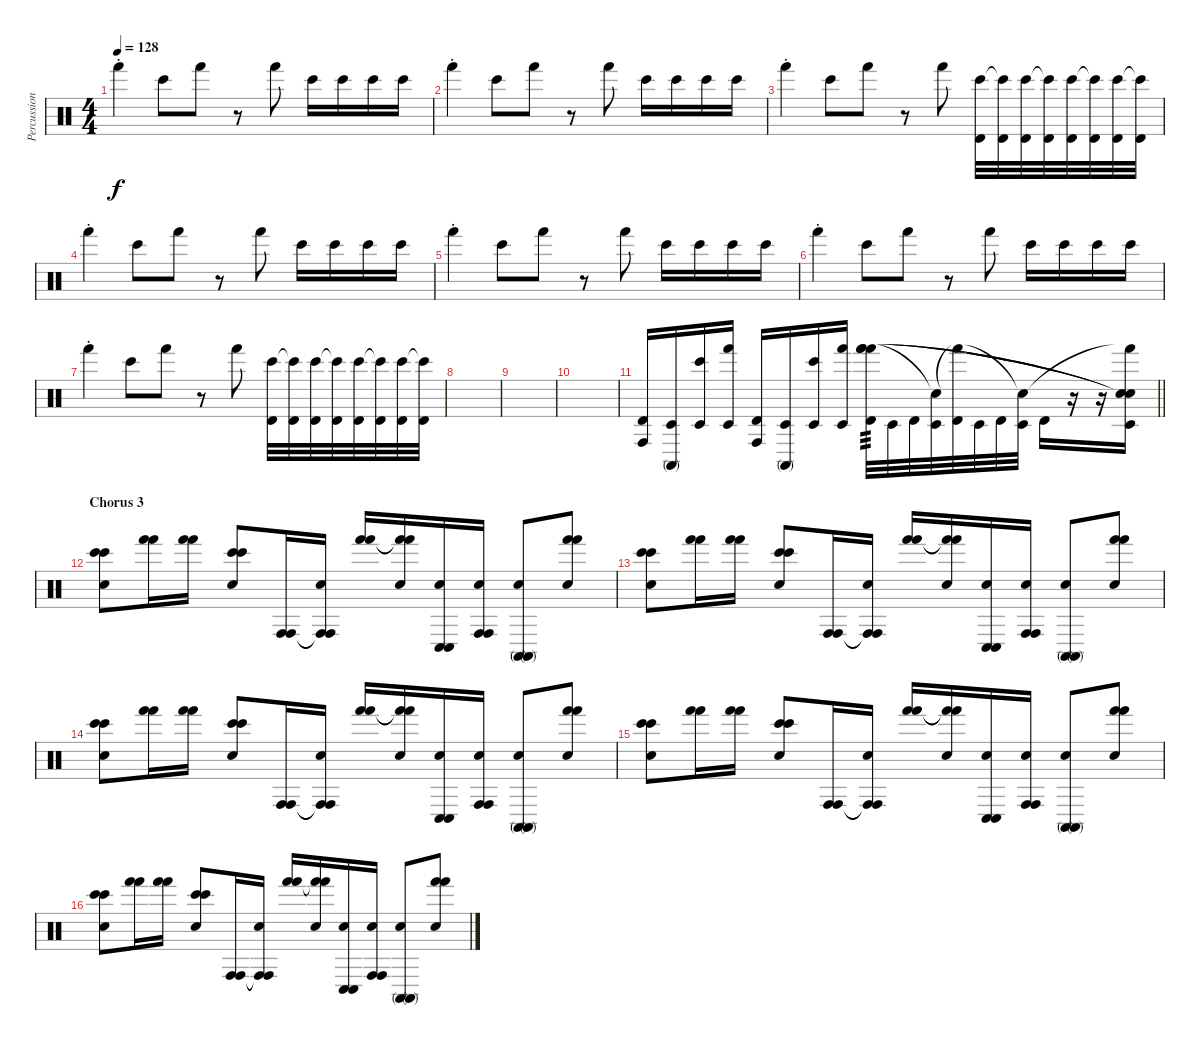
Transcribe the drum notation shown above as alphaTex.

\track ("Percussioni" "Percussion") {instrument percussion}
\staff {score}
\articulation defaults
\ts (4 4)
\tempo 128
\clef neutral
\ks c "Hand (hit)"{st}.4{dy f} "Bongo High (hit)".8 "Hand (hit)".8
r.8 "Hand (hit)".8 "Bongo High (hit)".16 "Bongo High (hit)".16 "Bongo High (hit)".16 "Bongo High (hit)".16 |
"Hand (hit)"{st}.4 "Bongo High (hit)".8 "Hand (hit)".8 r.8 "Hand (hit)".8 "Bongo High (hit)".16 "Bongo High (hit)".16 "Bongo High (hit)".16 "Bongo High (hit)".16 |
"Hand (hit)"{st}.4 "Bongo High (hit)".8 "Hand (hit)".8 r.8 "Hand (hit)".8 ("Timbale high (hit)" "Bongo High (hit)").32 ("Timbale high (hit)" "Bongo High (hit)"{t}).32 ("Timbale high (hit)" "Bongo High (hit)").32 ("Timbale high (hit)" "Bongo High (hit)"{t}).32 ("Timbale high (hit)" "Bongo High (hit)").32 ("Timbale high (hit)" "Bongo High (hit)"{t}).32 ("Timbale high (hit)" "Bongo High (hit)").32 ("Timbale high (hit)" "Bongo High (hit)"{t}).32 |
"Hand (hit)"{st}.4 "Bongo High (hit)".8 "Hand (hit)".8 r.8 "Hand (hit)".8 "Bongo High (hit)".16 "Bongo High (hit)".16 "Bongo High (hit)".16 "Bongo High (hit)".16 |
"Hand (hit)"{st}.4 "Bongo High (hit)".8 "Hand (hit)".8 r.8 "Hand (hit)".8 "Bongo High (hit)".16 "Bongo High (hit)".16 "Bongo High (hit)".16 "Bongo High (hit)".16 |
"Hand (hit)"{st}.4 "Bongo High (hit)".8 "Hand (hit)".8 r.8 "Hand (hit)".8 "Bongo High (hit)".16 "Bongo High (hit)".16 "Bongo High (hit)".16 "Bongo High (hit)".16 |
"Hand (hit)"{st}.4 "Bongo High (hit)".8 "Hand (hit)".8 r.8 "Hand (hit)".8 ("Timbale high (hit)" "Bongo High (hit)").32 ("Timbale high (hit)" "Bongo High (hit)"{t}).32 ("Timbale high (hit)" "Bongo High (hit)").32 ("Timbale high (hit)" "Bongo High (hit)"{t}).32 ("Timbale high (hit)" "Bongo High (hit)").32 ("Timbale high (hit)" "Bongo High (hit)"{t}).32 ("Timbale high (hit)" "Bongo High (hit)").32 ("Timbale high (hit)" "Bongo High (hit)"{t}).32 |
|
|
|
\barLineRight lightlight
("Timbale high (hit)" "Conga high (hit)").16 ("Timbale low (hit)" "Conga high (mute)").16 ("Timbale low (hit)" "Bongo High (hit)").16 ("Timbale low (hit)" "Hand (hit)").16 ("Timbale high (hit)" "Conga high (hit)").16 ("Timbale low (hit)" "Conga high (mute)").16 ("Timbale low (hit)" "Bongo High (hit)").16 ("Timbale low (hit)" "Hand (hit)").16 ("Timbale high (hit)" "Hand (hit)" "Hand (hit)" "Hand (hit)").32{tp 3} "Timbale low (hit)".32 "Timbale high (hit)".32 ("Timbale low (hit)" "Snare (hit)"{t}).32 ("Timbale high (hit)" "Hand (hit)"{t}).32 "Timbale low (hit)".32 "Timbale high (hit)".32 ("Timbale low (hit)" "Snare (hit)"{t}).32 "Timbale high (hit)".16 r.16 r.16 ("Timbale low (hit)" "Hand (hit)"{t} "Snare (hit)"{t} "Snare (hit)"{t}).16 |
\section ("" "Chorus 3")
("Bongo High (hit)" "Bongo High (hit)" "Hand Clap (hit)").8 ("Hand (hit)" "Hand (hit)").16 ("Hand (hit)" "Hand (hit)").16 ("Bongo High (hit)" "Bongo High (hit)" "Hand Clap (hit)").8 ("Conga high (hit)" "Conga high (hit)").16 ("Conga high (hit)"{t} "Conga high (hit)"{t} "Hand Clap (hit)").16 ("Hand (hit)" "Hand (hit)").16 ("Hand (hit)"{t} "Hand (hit)"{t} "Hand Clap (hit)").16 ("Conga low (hit)" "Conga low (hit)" "Hand Clap (hit)").16 ("Conga high (hit)" "Conga high (hit)" "Hand Clap (hit)").16 ("Conga high (mute)" "Conga high (mute)" "Hand Clap (hit)").8 ("Hand (hit)" "Hand (hit)" "Hand Clap (hit)").8 |
("Bongo High (hit)" "Bongo High (hit)" "Hand Clap (hit)").8 ("Hand (hit)" "Hand (hit)").16 ("Hand (hit)" "Hand (hit)").16 ("Bongo High (hit)" "Bongo High (hit)" "Hand Clap (hit)").8 ("Conga high (hit)" "Conga high (hit)").16 ("Conga high (hit)"{t} "Conga high (hit)"{t} "Hand Clap (hit)").16 ("Hand (hit)" "Hand (hit)").16 ("Hand (hit)"{t} "Hand (hit)"{t} "Hand Clap (hit)").16 ("Conga low (hit)" "Conga low (hit)" "Hand Clap (hit)").16 ("Conga high (hit)" "Conga high (hit)" "Hand Clap (hit)").16 ("Conga high (mute)" "Conga high (mute)" "Hand Clap (hit)").8 ("Hand (hit)" "Hand (hit)" "Hand Clap (hit)").8 |
("Bongo High (hit)" "Bongo High (hit)" "Hand Clap (hit)").8 ("Hand (hit)" "Hand (hit)").16 ("Hand (hit)" "Hand (hit)").16 ("Bongo High (hit)" "Bongo High (hit)" "Hand Clap (hit)").8 ("Conga high (hit)" "Conga high (hit)").16 ("Conga high (hit)"{t} "Conga high (hit)"{t} "Hand Clap (hit)").16 ("Hand (hit)" "Hand (hit)").16 ("Hand (hit)"{t} "Hand (hit)"{t} "Hand Clap (hit)").16 ("Conga low (hit)" "Conga low (hit)" "Hand Clap (hit)").16 ("Conga high (hit)" "Conga high (hit)" "Hand Clap (hit)").16 ("Conga high (mute)" "Conga high (mute)" "Hand Clap (hit)").8 ("Hand (hit)" "Hand (hit)" "Hand Clap (hit)").8 |
("Bongo High (hit)" "Bongo High (hit)" "Hand Clap (hit)").8 ("Hand (hit)" "Hand (hit)").16 ("Hand (hit)" "Hand (hit)").16 ("Bongo High (hit)" "Bongo High (hit)" "Hand Clap (hit)").8 ("Conga high (hit)" "Conga high (hit)").16 ("Conga high (hit)"{t} "Conga high (hit)"{t} "Hand Clap (hit)").16 ("Hand (hit)" "Hand (hit)").16 ("Hand (hit)"{t} "Hand (hit)"{t} "Hand Clap (hit)").16 ("Conga low (hit)" "Conga low (hit)" "Hand Clap (hit)").16 ("Conga high (hit)" "Conga high (hit)" "Hand Clap (hit)").16 ("Conga high (mute)" "Conga high (mute)" "Hand Clap (hit)").8 ("Hand (hit)" "Hand (hit)" "Hand Clap (hit)").8 |
("Bongo High (hit)" "Bongo High (hit)" "Hand Clap (hit)").8 ("Hand (hit)" "Hand (hit)").16 ("Hand (hit)" "Hand (hit)").16 ("Bongo High (hit)" "Bongo High (hit)" "Hand Clap (hit)").8 ("Conga high (hit)" "Conga high (hit)").16 ("Conga high (hit)"{t} "Conga high (hit)"{t} "Hand Clap (hit)").16 ("Hand (hit)" "Hand (hit)").16 ("Hand (hit)"{t} "Hand (hit)"{t} "Hand Clap (hit)").16 ("Conga low (hit)" "Conga low (hit)" "Hand Clap (hit)").16 ("Conga high (hit)" "Conga high (hit)" "Hand Clap (hit)").16 ("Conga high (mute)" "Conga high (mute)" "Hand Clap (hit)").8 ("Hand (hit)" "Hand (hit)" "Hand Clap (hit)").8
